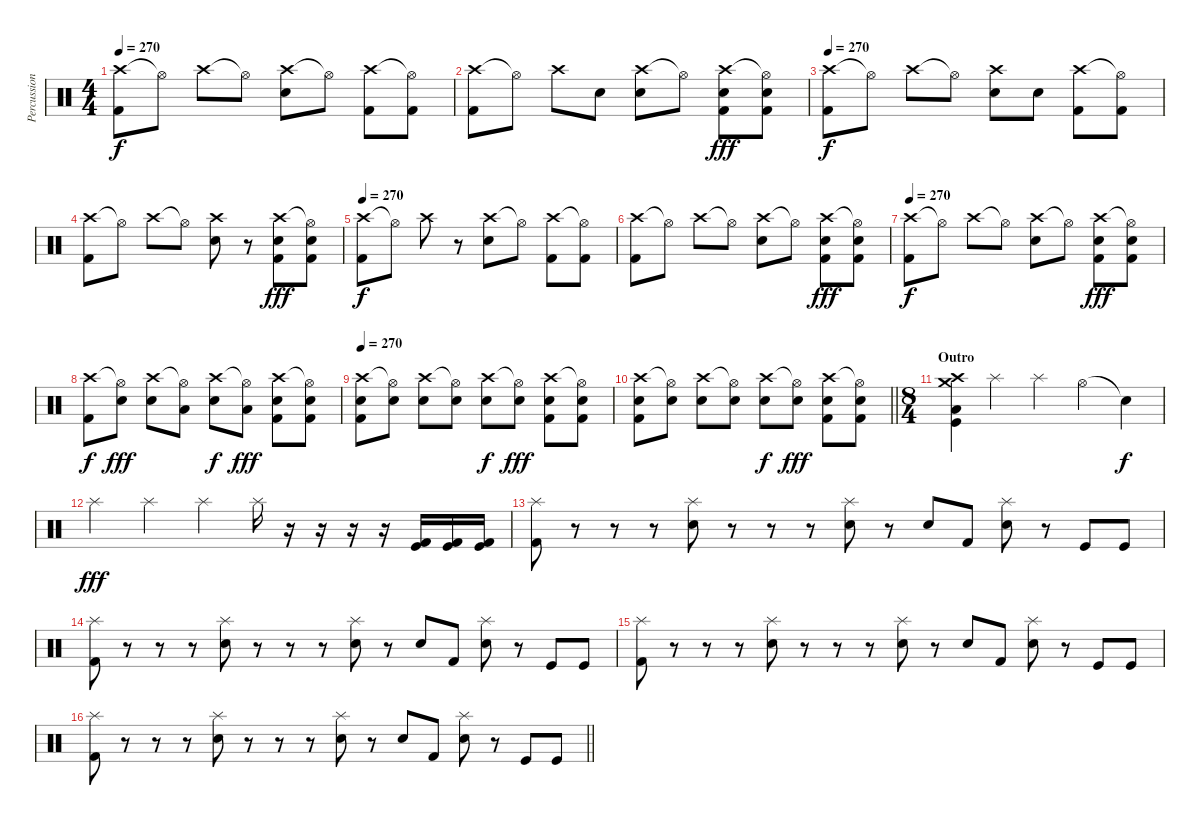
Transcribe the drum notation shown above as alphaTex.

\track ("Percussion" "Percussion") {instrument percussion}
\staff {score}
\articulation defaults
\ts (4 4)
\tempo 270
\clef neutral
\ks c
("Crash high (hit)" "Kick (hit) 2").8{dy f} "Hi-Hat (open)"{t}.8 "Crash high (hit)".8 "Hi-Hat (open)"{t}.8 ("Crash high (hit)" "Electric Snare (hit)").8 "Hi-Hat (open)"{t}.8 ("Crash high (hit)" "Kick (hit) 2").8 ("Hi-Hat (open)"{t} "Kick (hit) 2").8 |
("Crash high (hit)" "Kick (hit) 2").8 "Hi-Hat (open)"{t}.8 "Crash high (hit)".8 "Snare (hit)".8 ("Crash high (hit)" "Electric Snare (hit)").8 "Hi-Hat (open)"{t}.8 ("Crash high (hit)" "Electric Snare (hit)" "Kick (hit) 2").8{dy fff} ("Hi-Hat (open)"{t} "Electric Snare (hit)" "Kick (hit) 2").8 |
\tempo 270
("Crash high (hit)" "Kick (hit) 2").8{dy f} "Hi-Hat (open)"{t}.8 "Crash high (hit)".8 "Hi-Hat (open)"{t}.8 ("Crash high (hit)" "Electric Snare (hit)").8 "Snare (hit)".8 ("Crash high (hit)" "Kick (hit) 2").8 ("Hi-Hat (open)"{t} "Kick (hit) 2").8 |
("Crash high (hit)" "Kick (hit) 2").8 "Hi-Hat (open)"{t}.8 "Crash high (hit)".8 "Hi-Hat (open)"{t}.8 ("Crash high (hit)" "Electric Snare (hit)").8 r.8 ("Crash high (hit)" "Electric Snare (hit)" "Kick (hit) 2").8{dy fff} ("Hi-Hat (open)"{t} "Electric Snare (hit)" "Kick (hit) 2").8 |
\tempo 270
("Crash high (hit)" "Kick (hit) 2").8{dy f} "Hi-Hat (open)"{t}.8 "Crash high (hit)".8 r.8 ("Crash high (hit)" "Electric Snare (hit)").8 "Hi-Hat (open)"{t}.8 ("Crash high (hit)" "Kick (hit) 2").8 ("Hi-Hat (open)"{t} "Kick (hit) 2").8 |
("Crash high (hit)" "Kick (hit) 2").8 "Hi-Hat (open)"{t}.8 "Crash high (hit)".8 "Hi-Hat (open)"{t}.8 ("Crash high (hit)" "Electric Snare (hit)").8 "Hi-Hat (open)"{t}.8 ("Crash high (hit)" "Electric Snare (hit)" "Kick (hit) 2").8{dy fff} ("Hi-Hat (open)"{t} "Electric Snare (hit)" "Kick (hit) 2").8 |
\tempo 270
("Crash high (hit)" "Kick (hit) 2").8{dy f} "Hi-Hat (open)"{t}.8 "Crash high (hit)".8 "Hi-Hat (open)"{t}.8 ("Crash high (hit)" "Electric Snare (hit)").8 "Hi-Hat (open)"{t}.8 ("Crash high (hit)" "Electric Snare (hit)" "Kick (hit) 2").8{dy fff} ("Hi-Hat (open)"{t} "Electric Snare (hit)" "Kick (hit) 2").8 |
("Crash high (hit)" "Kick (hit) 2").8{dy f} ("Hi-Hat (open)"{t} "Electric Snare (hit)").8{dy fff} ("Crash high (hit)" "Electric Snare (hit)").8 ("Hi-Hat (open)"{t} "Low Floor Tom (hit)").8 ("Crash high (hit)" "Electric Snare (hit)").8{dy f} ("Hi-Hat (open)"{t} "Low Floor Tom (hit)").8{dy fff} ("Crash high (hit)" "Electric Snare (hit)" "Kick (hit) 2").8 ("Hi-Hat (open)"{t} "Electric Snare (hit)" "Kick (hit) 2").8 |
\tempo 270
("Crash high (hit)" "Electric Snare (hit)" "Kick (hit) 2").8 ("Hi-Hat (open)"{t} "Electric Snare (hit)").8 ("Crash high (hit)" "Electric Snare (hit)").8 ("Hi-Hat (open)"{t} "Electric Snare (hit)").8 ("Crash high (hit)" "Electric Snare (hit)").8{dy f} ("Hi-Hat (open)"{t} "Electric Snare (hit)").8{dy fff} ("Crash high (hit)" "Electric Snare (hit)" "Kick (hit) 2").8 ("Hi-Hat (open)"{t} "Electric Snare (hit)" "Kick (hit) 2").8 |
\barLineRight lightlight
("Crash high (hit)" "Electric Snare (hit)" "Kick (hit) 2").8 ("Hi-Hat (open)"{t} "Electric Snare (hit)").8 ("Crash high (hit)" "Electric Snare (hit)").8 ("Hi-Hat (open)"{t} "Electric Snare (hit)").8 ("Crash high (hit)" "Electric Snare (hit)").8{dy f} ("Hi-Hat (open)"{t} "Electric Snare (hit)").8{dy fff} ("Crash high (hit)" "Electric Snare (hit)" "Kick (hit) 2").8 ("Hi-Hat (open)"{t} "Electric Snare (hit)" "Kick (hit) 2").8 |
\ts (8 4)
\section ("" "Outro ")
("Crash high (hit)" "Crash medium (hit)" "Kick (hit)" "Low Floor Tom (hit)").4 "Splash (hit)".2 "Splash (hit)".2 "Hi-Hat (open)".2 "Snare (hit)"{t}.4{dy f} |
"Splash (hit)".2{dy fff} "Splash (hit)".2 "Splash (hit)".2 "Splash (hit)".16 r.16 r.16 r.16 r.16 ("Kick (hit) 2" "Kick (hit)").16 ("Kick (hit) 2" "Kick (hit)").16 ("Kick (hit) 2" "Kick (hit)").16 |
("Splash (hit)" "Kick (hit) 2").8 r.8 r.8 r.8 ("Splash (hit)" "Electric Snare (hit)").8 r.8 r.8 r.8 ("Splash (hit)" "Electric Snare (hit)").8 r.8 "Electric Snare (hit)".8 "Kick (hit) 2".8 ("Splash (hit)" "Electric Snare (hit)").8 r.8 "Kick (hit)".8 "Kick (hit)".8 |
("Splash (hit)" "Kick (hit) 2").8 r.8 r.8 r.8 ("Splash (hit)" "Electric Snare (hit)").8 r.8 r.8 r.8 ("Splash (hit)" "Electric Snare (hit)").8 r.8 "Electric Snare (hit)".8 "Kick (hit) 2".8 ("Splash (hit)" "Electric Snare (hit)").8 r.8 "Kick (hit)".8 "Kick (hit)".8 |
("Splash (hit)" "Kick (hit) 2").8 r.8 r.8 r.8 ("Splash (hit)" "Electric Snare (hit)").8 r.8 r.8 r.8 ("Splash (hit)" "Electric Snare (hit)").8 r.8 "Electric Snare (hit)".8 "Kick (hit) 2".8 ("Splash (hit)" "Electric Snare (hit)").8 r.8 "Kick (hit)".8 "Kick (hit)".8 |
\barLineRight lightlight
("Splash (hit)" "Kick (hit) 2").8 r.8 r.8 r.8 ("Splash (hit)" "Electric Snare (hit)").8 r.8 r.8 r.8 ("Splash (hit)" "Electric Snare (hit)").8 r.8 "Electric Snare (hit)".8 "Kick (hit) 2".8 ("Splash (hit)" "Electric Snare (hit)").8 r.8 "Kick (hit)".8 "Kick (hit)".8
